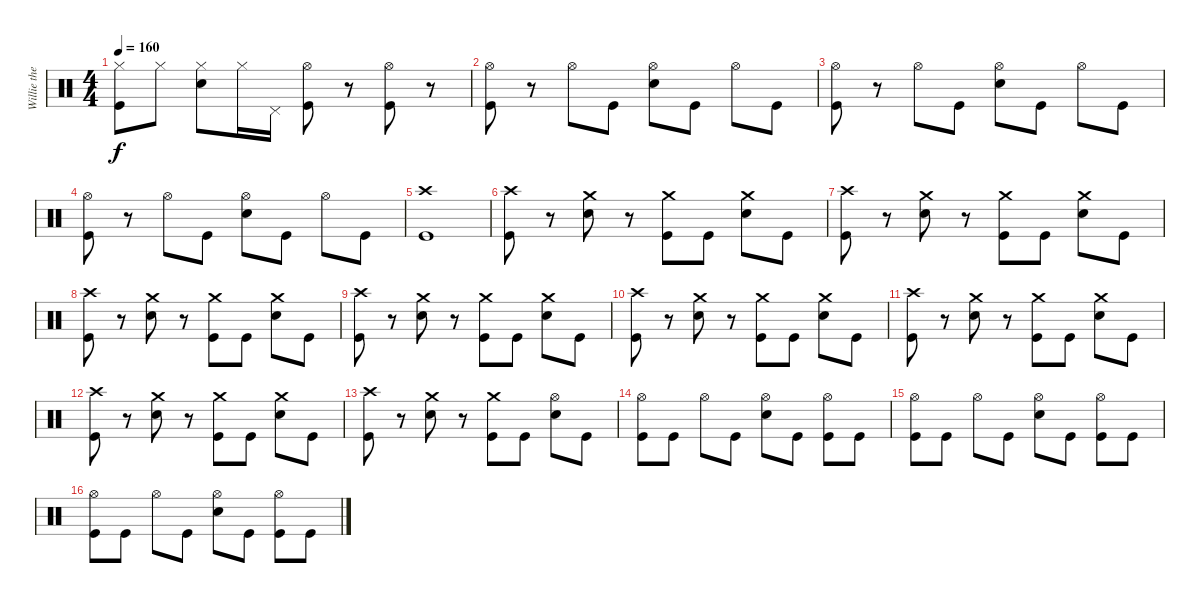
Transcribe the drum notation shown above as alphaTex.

\track ("Willie the new guy" "Willie the") {instrument percussion}
\staff {score}
\articulation defaults
\ts (4 4)
\tempo 160
\clef neutral
\ks c
("Hi-Hat (closed)" "Kick (hit)").8{dy f} "Hi-Hat (closed)".8 ("Hi-Hat (closed)" "Snare (hit) 2").8 "Hi-Hat (closed)".16 "Pedal Hi-Hat (hit)".16 ("Hi-Hat (open)" "Kick (hit)").8 r.8 ("Hi-Hat (open)" "Kick (hit)").8 r.8 |
("Hi-Hat (open)" "Kick (hit)").8 r.8 "Hi-Hat (open)".8 "Kick (hit)".8 ("Hi-Hat (open)" "Snare (hit) 2").8 "Kick (hit)".8 "Hi-Hat (open)".8 "Kick (hit)".8 |
("Hi-Hat (open)" "Kick (hit)").8 r.8 "Hi-Hat (open)".8 "Kick (hit)".8 ("Hi-Hat (open)" "Snare (hit) 2").8 "Kick (hit)".8 "Hi-Hat (open)".8 "Kick (hit)".8 |
("Hi-Hat (open)" "Kick (hit)").8 r.8 "Hi-Hat (open)".8 "Kick (hit)".8 ("Hi-Hat (open)" "Snare (hit) 2").8 "Kick (hit)".8 "Hi-Hat (open)".8 "Kick (hit)".8 |
("Crash high (hit)" "Kick (hit)").1 |
("Crash high (hit)" "Kick (hit)").8 r.8 ("Crash medium (hit)" "Snare (hit) 2").8 r.8 ("Crash medium (hit)" "Kick (hit)").8 "Kick (hit)".8 ("Crash medium (hit)" "Snare (hit) 2").8 "Kick (hit)".8 |
("Crash high (hit)" "Kick (hit)").8 r.8 ("Crash medium (hit)" "Snare (hit) 2").8 r.8 ("Crash medium (hit)" "Kick (hit)").8 "Kick (hit)".8 ("Crash medium (hit)" "Snare (hit) 2").8 "Kick (hit)".8 |
("Crash high (hit)" "Kick (hit)").8 r.8 ("Crash medium (hit)" "Snare (hit) 2").8 r.8 ("Crash medium (hit)" "Kick (hit)").8 "Kick (hit)".8 ("Crash medium (hit)" "Snare (hit) 2").8 "Kick (hit)".8 |
("Crash high (hit)" "Kick (hit)").8 r.8 ("Crash medium (hit)" "Snare (hit) 2").8 r.8 ("Crash medium (hit)" "Kick (hit)").8 "Kick (hit)".8 ("Crash medium (hit)" "Snare (hit) 2").8 "Kick (hit)".8 |
("Crash high (hit)" "Kick (hit)").8 r.8 ("Crash medium (hit)" "Snare (hit) 2").8 r.8 ("Crash medium (hit)" "Kick (hit)").8 "Kick (hit)".8 ("Crash medium (hit)" "Snare (hit) 2").8 "Kick (hit)".8 |
("Crash high (hit)" "Kick (hit)").8 r.8 ("Crash medium (hit)" "Snare (hit) 2").8 r.8 ("Crash medium (hit)" "Kick (hit)").8 "Kick (hit)".8 ("Crash medium (hit)" "Snare (hit) 2").8 "Kick (hit)".8 |
("Crash high (hit)" "Kick (hit)").8 r.8 ("Crash medium (hit)" "Snare (hit) 2").8 r.8 ("Crash medium (hit)" "Kick (hit)").8 "Kick (hit)".8 ("Crash medium (hit)" "Snare (hit) 2").8 "Kick (hit)".8 |
("Crash high (hit)" "Kick (hit)").8 r.8 ("Crash medium (hit)" "Snare (hit) 2").8 r.8 ("Crash medium (hit)" "Kick (hit)").8 "Kick (hit)".8 ("Hi-Hat (open)" "Snare (hit) 2").8 "Kick (hit)".8 |
("Hi-Hat (open)" "Kick (hit)").8 "Kick (hit)".8 "Hi-Hat (open)".8 "Kick (hit)".8 ("Hi-Hat (open)" "Snare (hit) 2").8 "Kick (hit)".8 ("Hi-Hat (open)" "Kick (hit)").8 "Kick (hit)".8 |
("Hi-Hat (open)" "Kick (hit)").8 "Kick (hit)".8 "Hi-Hat (open)".8 "Kick (hit)".8 ("Hi-Hat (open)" "Snare (hit) 2").8 "Kick (hit)".8 ("Hi-Hat (open)" "Kick (hit)").8 "Kick (hit)".8 |
("Hi-Hat (open)" "Kick (hit)").8 "Kick (hit)".8 "Hi-Hat (open)".8 "Kick (hit)".8 ("Hi-Hat (open)" "Snare (hit) 2").8 "Kick (hit)".8 ("Hi-Hat (open)" "Kick (hit)").8 "Kick (hit)".8
